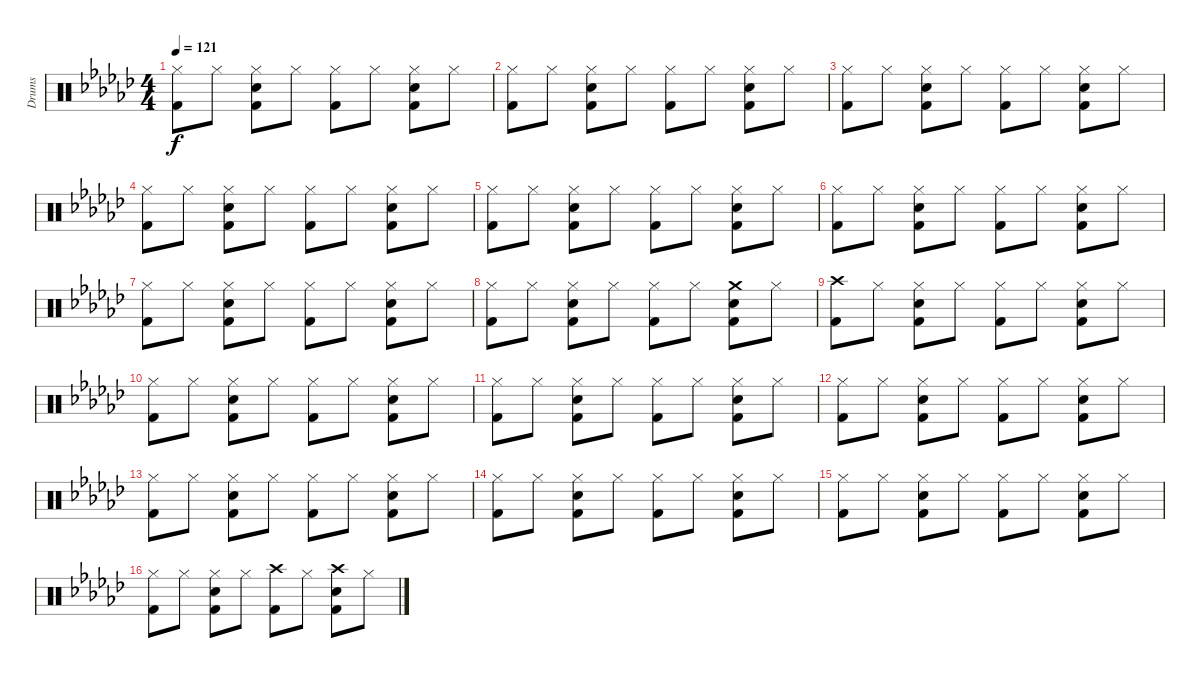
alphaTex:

\track ("Drums" "Drums") {instrument percussion}
\staff {score}
\articulation defaults
\ts (4 4)
\tempo 121
\clef neutral
\ks ebminor
("Hi-Hat (closed)" "Kick (hit) 2").8{dy f} "Hi-Hat (closed)".8 ("Hi-Hat (closed)" "Snare (hit) 2" "Kick (hit) 2").8 "Hi-Hat (closed)".8 ("Hi-Hat (closed)" "Kick (hit) 2").8 "Hi-Hat (closed)".8 ("Hi-Hat (closed)" "Snare (hit) 2" "Kick (hit) 2").8 "Hi-Hat (closed)".8 |
("Hi-Hat (closed)" "Kick (hit) 2").8 "Hi-Hat (closed)".8 ("Hi-Hat (closed)" "Snare (hit) 2" "Kick (hit) 2").8 "Hi-Hat (closed)".8 ("Hi-Hat (closed)" "Kick (hit) 2").8 "Hi-Hat (closed)".8 ("Hi-Hat (closed)" "Snare (hit) 2" "Kick (hit) 2").8 "Hi-Hat (closed)".8 |
("Hi-Hat (closed)" "Kick (hit) 2").8 "Hi-Hat (closed)".8 ("Hi-Hat (closed)" "Snare (hit) 2" "Kick (hit) 2").8 "Hi-Hat (closed)".8 ("Hi-Hat (closed)" "Kick (hit) 2").8 "Hi-Hat (closed)".8 ("Hi-Hat (closed)" "Snare (hit) 2" "Kick (hit) 2").8 "Hi-Hat (closed)".8 |
("Hi-Hat (closed)" "Kick (hit) 2").8 "Hi-Hat (closed)".8 ("Hi-Hat (closed)" "Snare (hit) 2" "Kick (hit) 2").8 "Hi-Hat (closed)".8 ("Hi-Hat (closed)" "Kick (hit) 2").8 "Hi-Hat (closed)".8 ("Hi-Hat (closed)" "Snare (hit) 2" "Kick (hit) 2").8 "Hi-Hat (closed)".8 |
("Hi-Hat (closed)" "Kick (hit) 2").8 "Hi-Hat (closed)".8 ("Hi-Hat (closed)" "Snare (hit) 2" "Kick (hit) 2").8 "Hi-Hat (closed)".8 ("Hi-Hat (closed)" "Kick (hit) 2").8 "Hi-Hat (closed)".8 ("Hi-Hat (closed)" "Snare (hit) 2" "Kick (hit) 2").8 "Hi-Hat (closed)".8 |
("Hi-Hat (closed)" "Kick (hit) 2").8 "Hi-Hat (closed)".8 ("Hi-Hat (closed)" "Snare (hit) 2" "Kick (hit) 2").8 "Hi-Hat (closed)".8 ("Hi-Hat (closed)" "Kick (hit) 2").8 "Hi-Hat (closed)".8 ("Hi-Hat (closed)" "Snare (hit) 2" "Kick (hit) 2").8 "Hi-Hat (closed)".8 |
("Hi-Hat (closed)" "Kick (hit) 2").8 "Hi-Hat (closed)".8 ("Hi-Hat (closed)" "Snare (hit) 2" "Kick (hit) 2").8 "Hi-Hat (closed)".8 ("Hi-Hat (closed)" "Kick (hit) 2").8 "Hi-Hat (closed)".8 ("Hi-Hat (closed)" "Snare (hit) 2" "Kick (hit) 2").8 "Hi-Hat (closed)".8 |
("Hi-Hat (closed)" "Kick (hit) 2").8 "Hi-Hat (closed)".8 ("Hi-Hat (closed)" "Snare (hit) 2" "Kick (hit) 2").8 "Hi-Hat (closed)".8 ("Hi-Hat (closed)" "Kick (hit) 2").8 "Hi-Hat (closed)".8 ("Crash medium (hit)" "Snare (hit) 2" "Kick (hit) 2").8 "Hi-Hat (closed)".8 |
("Crash high (hit)" "Kick (hit) 2").8{volume 9} "Hi-Hat (closed)".8 ("Hi-Hat (closed)" "Snare (hit) 2" "Kick (hit) 2").8 "Hi-Hat (closed)".8 ("Hi-Hat (closed)" "Kick (hit) 2").8 "Hi-Hat (closed)".8 ("Hi-Hat (closed)" "Snare (hit) 2" "Kick (hit) 2").8 "Hi-Hat (closed)".8 |
("Hi-Hat (closed)" "Kick (hit) 2").8 "Hi-Hat (closed)".8 ("Hi-Hat (closed)" "Snare (hit) 2" "Kick (hit) 2").8 "Hi-Hat (closed)".8 ("Hi-Hat (closed)" "Kick (hit) 2").8 "Hi-Hat (closed)".8 ("Hi-Hat (closed)" "Snare (hit) 2" "Kick (hit) 2").8 "Hi-Hat (closed)".8 |
("Hi-Hat (closed)" "Kick (hit) 2").8 "Hi-Hat (closed)".8 ("Hi-Hat (closed)" "Snare (hit) 2" "Kick (hit) 2").8 "Hi-Hat (closed)".8 ("Hi-Hat (closed)" "Kick (hit) 2").8 "Hi-Hat (closed)".8 ("Hi-Hat (closed)" "Snare (hit) 2" "Kick (hit) 2").8 "Hi-Hat (closed)".8 |
("Hi-Hat (closed)" "Kick (hit) 2").8 "Hi-Hat (closed)".8 ("Hi-Hat (closed)" "Snare (hit) 2" "Kick (hit) 2").8 "Hi-Hat (closed)".8 ("Hi-Hat (closed)" "Kick (hit) 2").8 "Hi-Hat (closed)".8 ("Hi-Hat (closed)" "Snare (hit) 2" "Kick (hit) 2").8 "Hi-Hat (closed)".8 |
("Hi-Hat (closed)" "Kick (hit) 2").8{volume 6} "Hi-Hat (closed)".8 ("Hi-Hat (closed)" "Snare (hit) 2" "Kick (hit) 2").8 "Hi-Hat (closed)".8 ("Hi-Hat (closed)" "Kick (hit) 2").8 "Hi-Hat (closed)".8 ("Hi-Hat (closed)" "Snare (hit) 2" "Kick (hit) 2").8 "Hi-Hat (closed)".8 |
("Hi-Hat (closed)" "Kick (hit) 2").8 "Hi-Hat (closed)".8 ("Hi-Hat (closed)" "Snare (hit) 2" "Kick (hit) 2").8 "Hi-Hat (closed)".8 ("Hi-Hat (closed)" "Kick (hit) 2").8 "Hi-Hat (closed)".8 ("Hi-Hat (closed)" "Snare (hit) 2" "Kick (hit) 2").8 "Hi-Hat (closed)".8 |
("Hi-Hat (closed)" "Kick (hit) 2").8 "Hi-Hat (closed)".8 ("Hi-Hat (closed)" "Snare (hit) 2" "Kick (hit) 2").8 "Hi-Hat (closed)".8 ("Hi-Hat (closed)" "Kick (hit) 2").8 "Hi-Hat (closed)".8 ("Hi-Hat (closed)" "Snare (hit) 2" "Kick (hit) 2").8 "Hi-Hat (closed)".8 |
("Hi-Hat (closed)" "Kick (hit) 2").8 "Hi-Hat (closed)".8 ("Hi-Hat (closed)" "Snare (hit) 2" "Kick (hit) 2").8 "Hi-Hat (closed)".8 ("Crash high (hit)" "Kick (hit) 2").8 "Hi-Hat (closed)".8 ("Crash high (hit)" "Snare (hit) 2" "Kick (hit) 2").8 "Hi-Hat (closed)".8
